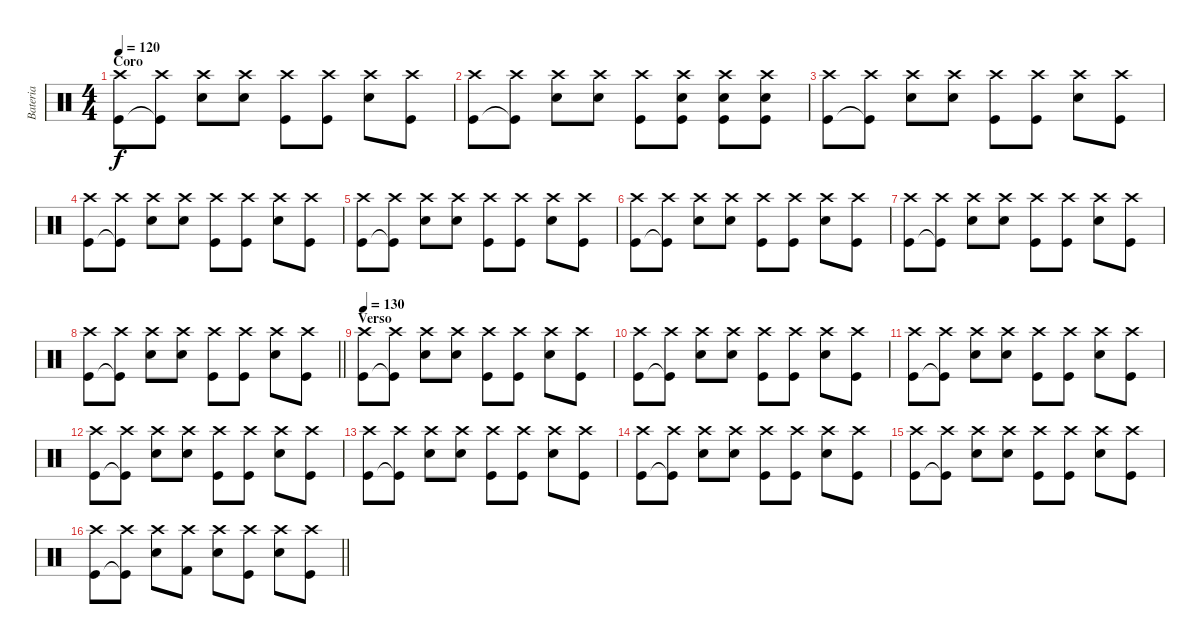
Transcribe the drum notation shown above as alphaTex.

\track ("Bateria" "Bateria") {instrument percussion}
\staff {score}
\articulation defaults
\ts (4 4)
\section ("" "Coro")
\tempo 120
\clef neutral
\ks c
("Crash high (hit)" "Kick (hit)").8{dy f} ("Crash high (hit)" "Kick (hit)"{t}).8 ("Crash high (hit)" "Snare (hit) 2").8 ("Crash high (hit)" "Snare (hit) 2").8 ("Crash high (hit)" "Kick (hit)").8 ("Crash high (hit)" "Kick (hit)").8 ("Crash high (hit)" "Snare (hit) 2").8 ("Crash high (hit)" "Kick (hit)").8 |
("Crash high (hit)" "Kick (hit)").8 ("Crash high (hit)" "Kick (hit)"{t}).8 ("Crash high (hit)" "Snare (hit) 2").8 ("Crash high (hit)" "Snare (hit) 2").8 ("Crash high (hit)" "Kick (hit)").8 ("Crash high (hit)" "Snare (hit) 2" "Kick (hit)").8 ("Crash high (hit)" "Snare (hit) 2" "Kick (hit)").8 ("Crash high (hit)" "Snare (hit) 2" "Kick (hit)").8 |
("Crash high (hit)" "Kick (hit)").8 ("Crash high (hit)" "Kick (hit)"{t}).8 ("Crash high (hit)" "Snare (hit) 2").8 ("Crash high (hit)" "Snare (hit) 2").8 ("Crash high (hit)" "Kick (hit)").8 ("Crash high (hit)" "Kick (hit)").8 ("Crash high (hit)" "Snare (hit) 2").8 ("Crash high (hit)" "Kick (hit)").8 |
("Crash high (hit)" "Kick (hit)").8 ("Crash high (hit)" "Kick (hit)"{t}).8 ("Crash high (hit)" "Snare (hit) 2").8 ("Crash high (hit)" "Snare (hit) 2").8 ("Crash high (hit)" "Kick (hit)").8 ("Crash high (hit)" "Kick (hit)").8 ("Crash high (hit)" "Snare (hit) 2").8 ("Crash high (hit)" "Kick (hit)").8 |
("Crash high (hit)" "Kick (hit)").8 ("Crash high (hit)" "Kick (hit)"{t}).8 ("Crash high (hit)" "Snare (hit) 2").8 ("Crash high (hit)" "Snare (hit) 2").8 ("Crash high (hit)" "Kick (hit)").8 ("Crash high (hit)" "Kick (hit)").8 ("Crash high (hit)" "Snare (hit) 2").8 ("Crash high (hit)" "Kick (hit)").8 |
("Crash high (hit)" "Kick (hit)").8 ("Crash high (hit)" "Kick (hit)"{t}).8 ("Crash high (hit)" "Snare (hit) 2").8 ("Crash high (hit)" "Snare (hit) 2").8 ("Crash high (hit)" "Kick (hit)").8 ("Crash high (hit)" "Kick (hit)").8 ("Crash high (hit)" "Snare (hit) 2").8 ("Crash high (hit)" "Kick (hit)").8 |
("Crash high (hit)" "Kick (hit)").8 ("Crash high (hit)" "Kick (hit)"{t}).8 ("Crash high (hit)" "Snare (hit) 2").8 ("Crash high (hit)" "Snare (hit) 2").8 ("Crash high (hit)" "Kick (hit)").8 ("Crash high (hit)" "Kick (hit)").8 ("Crash high (hit)" "Snare (hit) 2").8 ("Crash high (hit)" "Kick (hit)").8 |
\barLineRight lightlight
("Crash high (hit)" "Kick (hit)").8 ("Crash high (hit)" "Kick (hit)"{t}).8 ("Crash high (hit)" "Snare (hit) 2").8 ("Crash high (hit)" "Snare (hit) 2").8 ("Crash high (hit)" "Kick (hit)").8 ("Crash high (hit)" "Kick (hit)").8 ("Crash high (hit)" "Snare (hit) 2").8 ("Crash high (hit)" "Kick (hit)").8 |
\section ("" "Verso")
\tempo 130
("Crash high (hit)" "Kick (hit)").8 ("Crash high (hit)" "Kick (hit)"{t}).8 ("Crash high (hit)" "Snare (hit) 2").8 ("Crash high (hit)" "Snare (hit) 2").8 ("Crash high (hit)" "Kick (hit)").8 ("Crash high (hit)" "Kick (hit)").8 ("Crash high (hit)" "Snare (hit) 2").8 ("Crash high (hit)" "Kick (hit)").8 |
("Crash high (hit)" "Kick (hit)").8 ("Crash high (hit)" "Kick (hit)"{t}).8 ("Crash high (hit)" "Snare (hit) 2").8 ("Crash high (hit)" "Snare (hit) 2").8 ("Crash high (hit)" "Kick (hit)").8 ("Crash high (hit)" "Kick (hit)").8 ("Crash high (hit)" "Snare (hit) 2").8 ("Crash high (hit)" "Kick (hit)").8 |
("Crash high (hit)" "Kick (hit)").8 ("Crash high (hit)" "Kick (hit)"{t}).8 ("Crash high (hit)" "Snare (hit) 2").8 ("Crash high (hit)" "Snare (hit) 2").8 ("Crash high (hit)" "Kick (hit)").8 ("Crash high (hit)" "Kick (hit)").8 ("Crash high (hit)" "Snare (hit) 2").8 ("Crash high (hit)" "Kick (hit)").8 |
("Crash high (hit)" "Kick (hit)").8 ("Crash high (hit)" "Kick (hit)"{t}).8 ("Crash high (hit)" "Snare (hit) 2").8 ("Crash high (hit)" "Snare (hit) 2").8 ("Crash high (hit)" "Kick (hit)").8 ("Crash high (hit)" "Kick (hit)").8 ("Crash high (hit)" "Snare (hit) 2").8 ("Crash high (hit)" "Kick (hit)").8 |
("Crash high (hit)" "Kick (hit)").8 ("Crash high (hit)" "Kick (hit)"{t}).8 ("Crash high (hit)" "Snare (hit) 2").8 ("Crash high (hit)" "Snare (hit) 2").8 ("Crash high (hit)" "Kick (hit)").8 ("Crash high (hit)" "Kick (hit)").8 ("Crash high (hit)" "Snare (hit) 2").8 ("Crash high (hit)" "Kick (hit)").8 |
("Crash high (hit)" "Kick (hit)").8 ("Crash high (hit)" "Kick (hit)"{t}).8 ("Crash high (hit)" "Snare (hit) 2").8 ("Crash high (hit)" "Snare (hit) 2").8 ("Crash high (hit)" "Kick (hit)").8 ("Crash high (hit)" "Kick (hit)").8 ("Crash high (hit)" "Snare (hit) 2").8 ("Crash high (hit)" "Kick (hit)").8 |
("Crash high (hit)" "Kick (hit)").8 ("Crash high (hit)" "Kick (hit)"{t}).8 ("Crash high (hit)" "Snare (hit) 2").8 ("Crash high (hit)" "Snare (hit) 2").8 ("Crash high (hit)" "Kick (hit)").8 ("Crash high (hit)" "Kick (hit)").8 ("Crash high (hit)" "Snare (hit) 2").8 ("Crash high (hit)" "Kick (hit)").8 |
\barLineRight lightlight
("Crash high (hit)" "Kick (hit)").8 ("Crash high (hit)" "Kick (hit)"{t}).8 ("Crash high (hit)" "Snare (hit) 2").8 ("Crash high (hit)" "Kick (hit) 2").8 ("Crash high (hit)" "Snare (hit) 2").8 ("Crash high (hit)" "Kick (hit)").8 ("Crash high (hit)" "Snare (hit) 2").8 ("Crash high (hit)" "Kick (hit)").8
